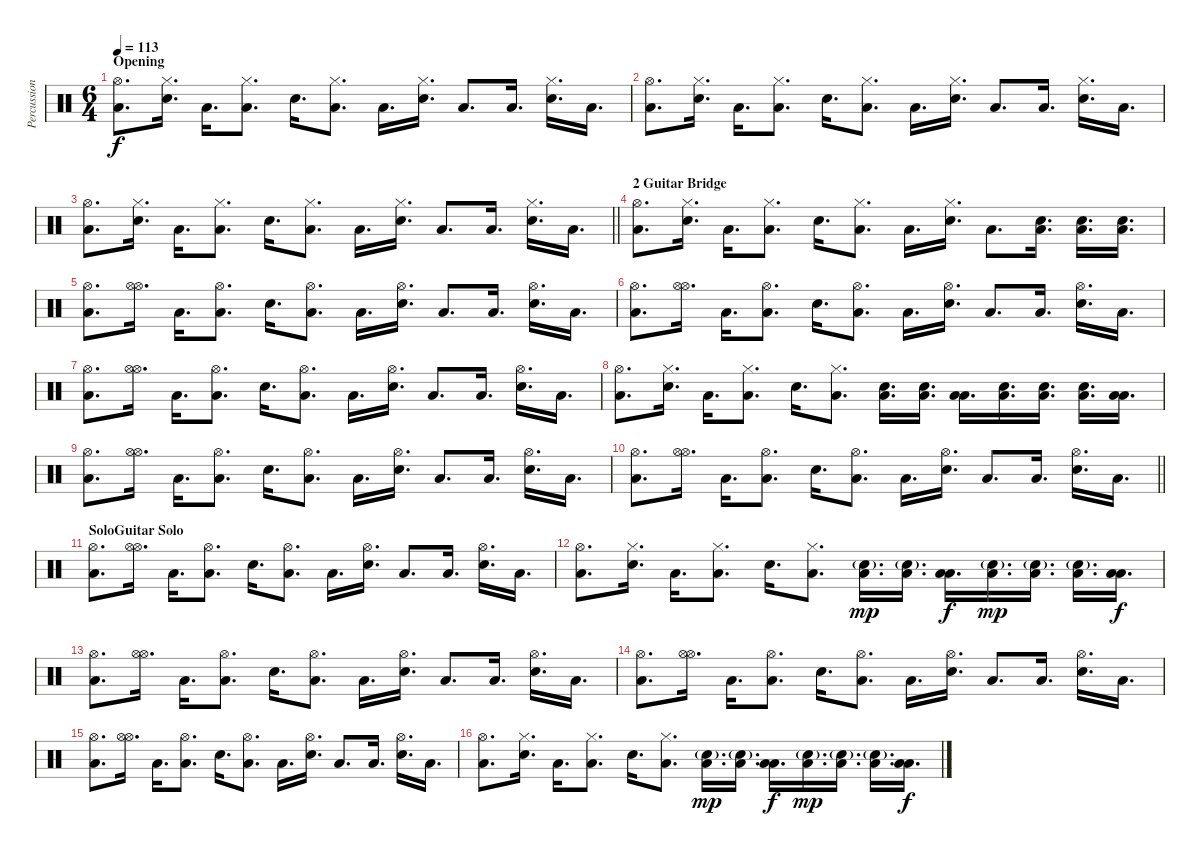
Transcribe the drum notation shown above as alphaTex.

\track ("Percussion" "Percussion") {instrument percussion}
\staff {score}
\articulation defaults
\ts (6 4)
\section ("" "Opening")
\tempo 113
\clef neutral
\ks c
("Low Tom (hit)" "Hi-Hat (open)").8{d dy f} ("Snare (hit) 2" "Hi-Hat (closed)").16{d} "Low Floor Tom (hit)".16{d} ("Low Floor Tom (hit)" "Hi-Hat (closed)").8{d} "Snare (hit) 2".16{d} ("Low Tom (hit)" "Hi-Hat (closed)").8{d} "Low Tom (hit)".16{d} ("Hi-Hat (closed)" "Snare (hit) 2").16{d} "Low Tom (hit)".8{d} "Low Tom (hit)".16{d} ("Hi-Hat (closed)" "Snare (hit) 2").16{d} "Low Tom (hit)".16{d} |
("Low Tom (hit)" "Hi-Hat (open)").8{d} ("Snare (hit) 2" "Hi-Hat (closed)").16{d} "Low Floor Tom (hit)".16{d} ("Low Floor Tom (hit)" "Hi-Hat (closed)").8{d} "Snare (hit) 2".16{d} ("Low Tom (hit)" "Hi-Hat (closed)").8{d} "Low Tom (hit)".16{d} ("Hi-Hat (closed)" "Snare (hit) 2").16{d} "Low Tom (hit)".8{d} "Low Tom (hit)".16{d} ("Hi-Hat (closed)" "Snare (hit) 2").16{d} "Low Tom (hit)".16{d} |
\barLineRight lightlight
("Low Tom (hit)" "Hi-Hat (open)").8{d} ("Snare (hit) 2" "Hi-Hat (closed)").16{d} "Low Floor Tom (hit)".16{d} ("Low Floor Tom (hit)" "Hi-Hat (closed)").8{d} "Snare (hit) 2".16{d} ("Low Tom (hit)" "Hi-Hat (closed)").8{d} "Low Tom (hit)".16{d} ("Hi-Hat (closed)" "Snare (hit) 2").16{d} "Low Tom (hit)".8{d} "Low Tom (hit)".16{d} ("Hi-Hat (closed)" "Snare (hit) 2").16{d} "Low Tom (hit)".16{d} |
\section ("" "2 Guitar Bridge")
("Low Tom (hit)" "Hi-Hat (open)").8{d} ("Snare (hit) 2" "Hi-Hat (closed)").16{d} "Low Floor Tom (hit)".16{d} ("Low Floor Tom (hit)" "Hi-Hat (closed)").8{d} "Snare (hit) 2".16{d} ("Low Tom (hit)" "Hi-Hat (closed)").8{d} "Low Tom (hit)".16{d} ("Hi-Hat (closed)" "Snare (hit) 2").16{d} "Low Tom (hit)".8{d} ("Low Tom (hit)" "Electric Snare (hit)").16{d} ("Low Tom (hit)" "Electric Snare (hit)").16{d} ("Low Tom (hit)" "Electric Snare (hit)").16{d} |
("Low Tom (hit)" "Hi-Hat (open)").8{d} ("Hi-Hat (open)" "Hi-Hat (open)").16{d} "Low Floor Tom (hit)".16{d} ("Low Floor Tom (hit)" "Hi-Hat (open)").8{d} "Snare (hit) 2".16{d} ("Low Tom (hit)" "Hi-Hat (open)").8{d} "Low Tom (hit)".16{d} ("Hi-Hat (open)" "Snare (hit) 2").16{d} "Low Tom (hit)".8{d} "Low Tom (hit)".16{d} ("Hi-Hat (open)" "Snare (hit) 2").16{d} "Low Tom (hit)".16{d} |
("Low Tom (hit)" "Hi-Hat (open)").8{d} ("Hi-Hat (open)" "Hi-Hat (open)").16{d} "Low Floor Tom (hit)".16{d} ("Low Floor Tom (hit)" "Hi-Hat (open)").8{d} "Snare (hit) 2".16{d} ("Low Tom (hit)" "Hi-Hat (open)").8{d} "Low Tom (hit)".16{d} ("Hi-Hat (open)" "Snare (hit) 2").16{d} "Low Tom (hit)".8{d} "Low Tom (hit)".16{d} ("Hi-Hat (open)" "Snare (hit) 2").16{d} "Low Tom (hit)".16{d} |
("Low Tom (hit)" "Hi-Hat (open)").8{d} ("Hi-Hat (open)" "Hi-Hat (open)").16{d} "Low Floor Tom (hit)".16{d} ("Low Floor Tom (hit)" "Hi-Hat (open)").8{d} "Snare (hit) 2".16{d} ("Low Tom (hit)" "Hi-Hat (open)").8{d} "Low Tom (hit)".16{d} ("Hi-Hat (open)" "Snare (hit) 2").16{d} "Low Tom (hit)".8{d} "Low Tom (hit)".16{d} ("Hi-Hat (open)" "Snare (hit) 2").16{d} "Low Tom (hit)".16{d} |
("Low Tom (hit)" "Hi-Hat (open)").8{d} ("Snare (hit) 2" "Hi-Hat (closed)").16{d} "Low Floor Tom (hit)".16{d} ("Low Floor Tom (hit)" "Hi-Hat (closed)").8{d} "Snare (hit) 2".16{d} ("Low Tom (hit)" "Hi-Hat (closed)").8{d} ("Low Tom (hit)" "Electric Snare (hit)").16{d} ("Low Tom (hit)" "Snare (hit) 2").16{d} ("Low Tom (hit)" "Low Floor Tom (hit)").16{d} ("Low Tom (hit)" "Electric Snare (hit)").16{d} ("Low Tom (hit)" "Snare (hit) 2").16{d} ("Low Tom (hit)" "Electric Snare (hit)").16{d} ("Low Tom (hit)" "Low Floor Tom (hit)").16{d} |
("Low Tom (hit)" "Hi-Hat (open)").8{d} ("Hi-Hat (open)" "Hi-Hat (open)").16{d} "Low Floor Tom (hit)".16{d} ("Low Floor Tom (hit)" "Hi-Hat (open)").8{d} "Snare (hit) 2".16{d} ("Low Tom (hit)" "Hi-Hat (open)").8{d} "Low Tom (hit)".16{d} ("Hi-Hat (open)" "Snare (hit) 2").16{d} "Low Tom (hit)".8{d} "Low Tom (hit)".16{d} ("Hi-Hat (open)" "Snare (hit) 2").16{d} "Low Tom (hit)".16{d} |
\barLineRight lightlight
("Low Tom (hit)" "Hi-Hat (open)").8{d} ("Hi-Hat (open)" "Hi-Hat (open)").16{d} "Low Floor Tom (hit)".16{d} ("Low Floor Tom (hit)" "Hi-Hat (open)").8{d} "Snare (hit) 2".16{d} ("Low Tom (hit)" "Hi-Hat (open)").8{d} "Low Tom (hit)".16{d} ("Hi-Hat (open)" "Snare (hit) 2").16{d} "Low Tom (hit)".8{d} "Low Tom (hit)".16{d} ("Hi-Hat (open)" "Snare (hit) 2").16{d} "Low Tom (hit)".16{d} |
\section ("" "SoloGuitar Solo")
("Low Tom (hit)" "Hi-Hat (open)").8{d} ("Hi-Hat (open)" "Hi-Hat (open)").16{d} "Low Floor Tom (hit)".16{d} ("Low Floor Tom (hit)" "Hi-Hat (open)").8{d} "Snare (hit) 2".16{d} ("Low Tom (hit)" "Hi-Hat (open)").8{d} "Low Tom (hit)".16{d} ("Hi-Hat (open)" "Snare (hit) 2").16{d} "Low Tom (hit)".8{d} "Low Tom (hit)".16{d} ("Hi-Hat (open)" "Snare (hit) 2").16{d} "Low Tom (hit)".16{d} |
("Low Tom (hit)" "Hi-Hat (open)").8{d} ("Snare (hit) 2" "Hi-Hat (closed)").16{d} "Low Floor Tom (hit)".16{d} ("Low Floor Tom (hit)" "Hi-Hat (closed)").8{d} "Snare (hit) 2".16{d} ("Low Tom (hit)" "Hi-Hat (closed)").8{d} ("Low Tom (hit)" "Electric Snare (hit)"{g}).16{d dy mp} ("Low Tom (hit)" "Electric Snare (hit)"{g}).16{d} ("Low Tom (hit)" "Low Floor Tom (hit)").16{d dy f} ("Low Tom (hit)" "Electric Snare (hit)"{g}).16{d dy mp} ("Low Tom (hit)" "Electric Snare (hit)"{g}).16{d} ("Low Tom (hit)" "Electric Snare (hit)"{g}).16{d} ("Low Tom (hit)" "Low Floor Tom (hit)").16{d dy f} |
("Low Tom (hit)" "Hi-Hat (open)").8{d} ("Hi-Hat (open)" "Hi-Hat (open)").16{d} "Low Floor Tom (hit)".16{d} ("Low Floor Tom (hit)" "Hi-Hat (open)").8{d} "Snare (hit) 2".16{d} ("Low Tom (hit)" "Hi-Hat (open)").8{d} "Low Tom (hit)".16{d} ("Hi-Hat (open)" "Snare (hit) 2").16{d} "Low Tom (hit)".8{d} "Low Tom (hit)".16{d} ("Hi-Hat (open)" "Snare (hit) 2").16{d} "Low Tom (hit)".16{d} |
("Low Tom (hit)" "Hi-Hat (open)").8{d} ("Hi-Hat (open)" "Hi-Hat (open)").16{d} "Low Floor Tom (hit)".16{d} ("Low Floor Tom (hit)" "Hi-Hat (open)").8{d} "Snare (hit) 2".16{d} ("Low Tom (hit)" "Hi-Hat (open)").8{d} "Low Tom (hit)".16{d} ("Hi-Hat (open)" "Snare (hit) 2").16{d} "Low Tom (hit)".8{d} "Low Tom (hit)".16{d} ("Hi-Hat (open)" "Snare (hit) 2").16{d} "Low Tom (hit)".16{d} |
("Low Tom (hit)" "Hi-Hat (open)").8{d} ("Hi-Hat (open)" "Hi-Hat (open)").16{d} "Low Floor Tom (hit)".16{d} ("Low Floor Tom (hit)" "Hi-Hat (open)").8{d} "Snare (hit) 2".16{d} ("Low Tom (hit)" "Hi-Hat (open)").8{d} "Low Tom (hit)".16{d} ("Hi-Hat (open)" "Snare (hit) 2").16{d} "Low Tom (hit)".8{d} "Low Tom (hit)".16{d} ("Hi-Hat (open)" "Snare (hit) 2").16{d} "Low Tom (hit)".16{d} |
("Low Tom (hit)" "Hi-Hat (open)").8{d} ("Snare (hit) 2" "Hi-Hat (closed)").16{d} "Low Floor Tom (hit)".16{d} ("Low Floor Tom (hit)" "Hi-Hat (closed)").8{d} "Snare (hit) 2".16{d} ("Low Tom (hit)" "Hi-Hat (closed)").8{d} ("Low Tom (hit)" "Electric Snare (hit)"{g}).16{d dy mp} ("Low Tom (hit)" "Electric Snare (hit)"{g}).16{d} ("Low Tom (hit)" "Low Floor Tom (hit)").16{d dy f} ("Low Tom (hit)" "Electric Snare (hit)"{g}).16{d dy mp} ("Low Tom (hit)" "Electric Snare (hit)"{g}).16{d} ("Low Tom (hit)" "Electric Snare (hit)"{g}).16{d} ("Low Tom (hit)" "Low Floor Tom (hit)").16{d dy f}
